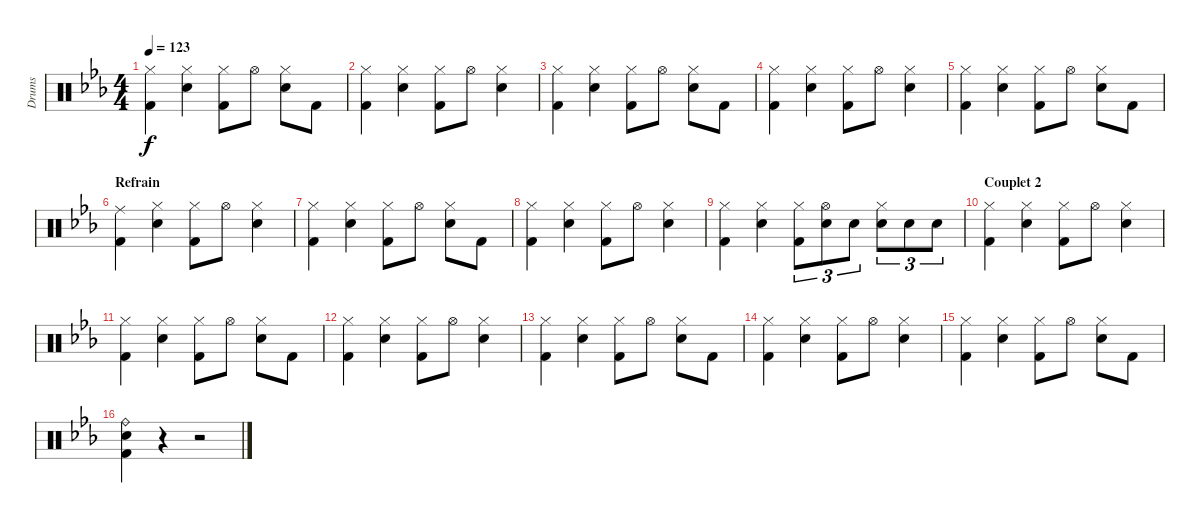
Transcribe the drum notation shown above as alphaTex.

\track ("Drums" "Drums") {instrument percussion}
\staff {score}
\articulation defaults
\ts (4 4)
\tempo 123
\clef neutral
\ks cminor
("Hi-Hat (closed)" "Kick (hit) 2").4{dy f} ("Hi-Hat (closed)" "Electric Snare (hit)").4 ("Hi-Hat (closed)" "Kick (hit) 2").8 "Hi-Hat (open)".8 ("Hi-Hat (closed)" "Electric Snare (hit)").8 "Kick (hit) 2".8 |
("Hi-Hat (closed)" "Kick (hit) 2").4 ("Hi-Hat (closed)" "Electric Snare (hit)").4 ("Hi-Hat (closed)" "Kick (hit) 2").8 "Hi-Hat (open)".8 ("Hi-Hat (closed)" "Electric Snare (hit)").4 |
("Hi-Hat (closed)" "Kick (hit) 2").4 ("Hi-Hat (closed)" "Electric Snare (hit)").4 ("Hi-Hat (closed)" "Kick (hit) 2").8 "Hi-Hat (open)".8 ("Hi-Hat (closed)" "Electric Snare (hit)").8 "Kick (hit) 2".8 |
("Hi-Hat (closed)" "Kick (hit) 2").4 ("Hi-Hat (closed)" "Electric Snare (hit)").4 ("Hi-Hat (closed)" "Kick (hit) 2").8 "Hi-Hat (open)".8 ("Hi-Hat (closed)" "Electric Snare (hit)").4 |
("Hi-Hat (closed)" "Kick (hit) 2").4 ("Hi-Hat (closed)" "Electric Snare (hit)").4 ("Hi-Hat (closed)" "Kick (hit) 2").8 "Hi-Hat (open)".8 ("Hi-Hat (closed)" "Electric Snare (hit)").8 "Kick (hit) 2".8 |
\section ("" "Refrain")
("Ride (middle)" "Kick (hit) 2").4 ("Hi-Hat (closed)" "Electric Snare (hit)").4 ("Hi-Hat (closed)" "Kick (hit) 2").8 "Hi-Hat (open)".8 ("Hi-Hat (closed)" "Electric Snare (hit)").4 |
("Hi-Hat (closed)" "Kick (hit) 2").4 ("Hi-Hat (closed)" "Electric Snare (hit)").4 ("Hi-Hat (closed)" "Kick (hit) 2").8 "Hi-Hat (open)".8 ("Hi-Hat (closed)" "Electric Snare (hit)").8 "Kick (hit) 2".8 |
("Hi-Hat (closed)" "Kick (hit) 2").4 ("Hi-Hat (closed)" "Electric Snare (hit)").4 ("Hi-Hat (closed)" "Kick (hit) 2").8 "Hi-Hat (open)".8 ("Hi-Hat (closed)" "Electric Snare (hit)").4 |
("Hi-Hat (closed)" "Kick (hit) 2").4 ("Hi-Hat (closed)" "Electric Snare (hit)").4 ("Hi-Hat (closed)" "Kick (hit) 2").8{tu (3 2)} ("Hi-Hat (open)" "Electric Snare (hit)").8{tu (3 2)} "Electric Snare (hit)".8{tu (3 2)} ("Hi-Hat (closed)" "Electric Snare (hit)").8{tu (3 2)} "Electric Snare (hit)".8{tu (3 2)} "Electric Snare (hit)".8{tu (3 2)} |
\section ("" "Couplet 2")
("Hi-Hat (closed)" "Kick (hit) 2").4 ("Hi-Hat (closed)" "Electric Snare (hit)").4 ("Hi-Hat (closed)" "Kick (hit) 2").8 "Hi-Hat (open)".8 ("Hi-Hat (closed)" "Electric Snare (hit)").4 |
("Hi-Hat (closed)" "Kick (hit) 2").4 ("Hi-Hat (closed)" "Electric Snare (hit)").4 ("Hi-Hat (closed)" "Kick (hit) 2").8 "Hi-Hat (open)".8 ("Hi-Hat (closed)" "Electric Snare (hit)").8 "Kick (hit) 2".8 |
("Hi-Hat (closed)" "Kick (hit) 2").4 ("Hi-Hat (closed)" "Electric Snare (hit)").4 ("Hi-Hat (closed)" "Kick (hit) 2").8 "Hi-Hat (open)".8 ("Hi-Hat (closed)" "Electric Snare (hit)").4 |
("Hi-Hat (closed)" "Kick (hit) 2").4 ("Hi-Hat (closed)" "Electric Snare (hit)").4 ("Hi-Hat (closed)" "Kick (hit) 2").8 "Hi-Hat (open)".8 ("Hi-Hat (closed)" "Electric Snare (hit)").8 "Kick (hit) 2".8 |
("Hi-Hat (closed)" "Kick (hit) 2").4 ("Hi-Hat (closed)" "Electric Snare (hit)").4 ("Hi-Hat (closed)" "Kick (hit) 2").8 "Hi-Hat (open)".8 ("Hi-Hat (closed)" "Electric Snare (hit)").4 |
("Hi-Hat (closed)" "Kick (hit) 2").4 ("Hi-Hat (closed)" "Electric Snare (hit)").4 ("Hi-Hat (closed)" "Kick (hit) 2").8 "Hi-Hat (open)".8 ("Hi-Hat (closed)" "Electric Snare (hit)").8 "Kick (hit) 2".8 |
("Ride (bell)" "Electric Snare (hit)" "Kick (hit) 2").4 r.4 r.2
